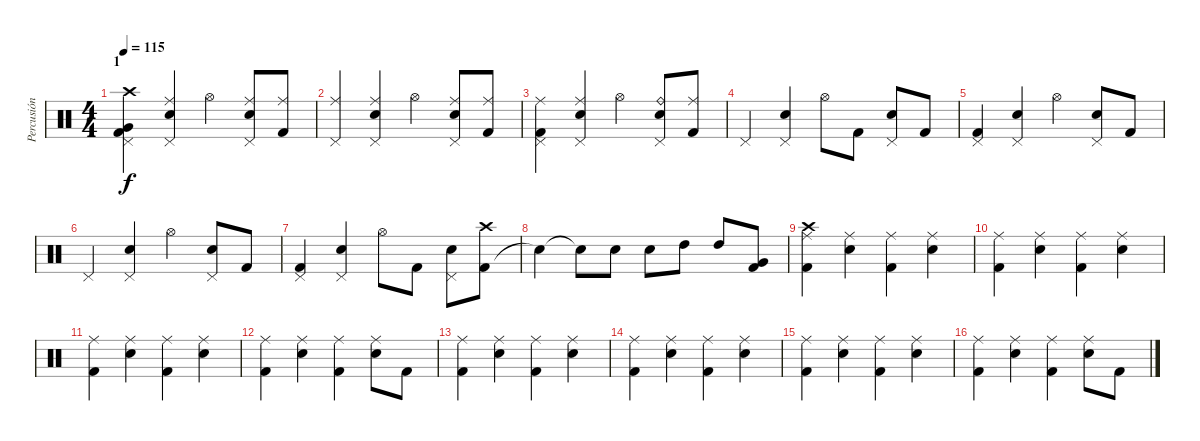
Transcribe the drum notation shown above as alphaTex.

\track ("Percusión" "Percusión") {instrument percussion}
\staff {score}
\articulation defaults
\ts (4 4)
\section ("" "1")
\tempo 115
\clef neutral
\ks c
("Kick (hit) 2" "Very Low Tom (hit)" "Pedal Hi-Hat (hit)" "Crash high (hit)").4{dy f} ("Snare (hit) 2" "Pedal Hi-Hat (hit)" "Ride (middle)").4 "Hi-Hat (open)".4 ("Snare (hit) 2" "Pedal Hi-Hat (hit)" "Ride (middle)").8 ("Kick (hit) 2" "Ride (middle)").8 |
("Pedal Hi-Hat (hit)" "Ride (middle)").4 ("Snare (hit) 2" "Pedal Hi-Hat (hit)" "Ride (middle)").4 "Hi-Hat (open)".4 ("Snare (hit) 2" "Pedal Hi-Hat (hit)" "Ride (middle)").8 ("Kick (hit) 2" "Ride (middle)").8 |
("Kick (hit) 2" "Pedal Hi-Hat (hit)" "Ride (middle)").4 ("Snare (hit) 2" "Pedal Hi-Hat (hit)" "Ride (middle)").4 "Hi-Hat (open)".4 ("Snare (hit) 2" "Pedal Hi-Hat (hit)" "Ride (bell)").8 ("Kick (hit) 2" "Ride (middle)").8 |
"Pedal Hi-Hat (hit)".4 ("Snare (hit) 2" "Pedal Hi-Hat (hit)").4 "Hi-Hat (open)".8 "Kick (hit) 2".8 ("Snare (hit) 2" "Pedal Hi-Hat (hit)").8 "Kick (hit) 2".8 |
("Kick (hit) 2" "Pedal Hi-Hat (hit)").4 ("Snare (hit) 2" "Pedal Hi-Hat (hit)").4 "Hi-Hat (open)".4 ("Snare (hit) 2" "Pedal Hi-Hat (hit)").8 "Kick (hit) 2".8 |
"Pedal Hi-Hat (hit)".4 ("Snare (hit) 2" "Pedal Hi-Hat (hit)").4 "Hi-Hat (open)".4 ("Snare (hit) 2" "Pedal Hi-Hat (hit)").8 "Kick (hit) 2".8 |
("Kick (hit) 2" "Pedal Hi-Hat (hit)").4 ("Snare (hit) 2" "Pedal Hi-Hat (hit)").4 "Hi-Hat (open)".8 "Kick (hit) 2".8 ("Snare (hit) 2" "Pedal Hi-Hat (hit)").8 ("Kick (hit) 2" "Crash high (hit)").8 |
"Snare (hit)"{t}.4 "Snare (hit)"{t}.8 "Snare (hit) 2".8 "Snare (hit) 2".8 "High Tom (hit)".8 "High Tom (hit)".8 ("Very Low Tom (hit)" "Kick (hit) 2").8 |
("Kick (hit) 2" "Ride (middle)" "Crash high (hit)").4 ("Snare (hit) 2" "Ride (middle)").4 ("Kick (hit) 2" "Ride (middle)").4 ("Snare (hit) 2" "Ride (middle)").4 |
("Kick (hit) 2" "Ride (middle)").4 ("Snare (hit) 2" "Ride (middle)").4 ("Kick (hit) 2" "Ride (middle)").4 ("Snare (hit) 2" "Ride (middle)").4 |
("Kick (hit) 2" "Ride (middle)").4 ("Snare (hit) 2" "Ride (middle)").4 ("Kick (hit) 2" "Ride (middle)").4 ("Snare (hit) 2" "Ride (middle)").4 |
("Kick (hit) 2" "Ride (middle)").4 ("Snare (hit) 2" "Ride (middle)").4 ("Kick (hit) 2" "Ride (middle)").4 ("Snare (hit) 2" "Ride (middle)").8 "Kick (hit) 2".8 |
("Kick (hit) 2" "Ride (middle)").4 ("Snare (hit) 2" "Ride (middle)").4 ("Kick (hit) 2" "Ride (middle)").4 ("Snare (hit) 2" "Ride (middle)").4 |
("Kick (hit) 2" "Ride (middle)").4 ("Snare (hit) 2" "Ride (middle)").4 ("Kick (hit) 2" "Ride (middle)").4 ("Snare (hit) 2" "Ride (middle)").4 |
("Kick (hit) 2" "Ride (middle)").4 ("Snare (hit) 2" "Ride (middle)").4 ("Kick (hit) 2" "Ride (middle)").4 ("Snare (hit) 2" "Ride (middle)").4 |
("Kick (hit) 2" "Ride (middle)").4 ("Snare (hit) 2" "Ride (middle)").4 ("Kick (hit) 2" "Ride (middle)").4 ("Snare (hit) 2" "Ride (middle)").8 "Kick (hit) 2".8
